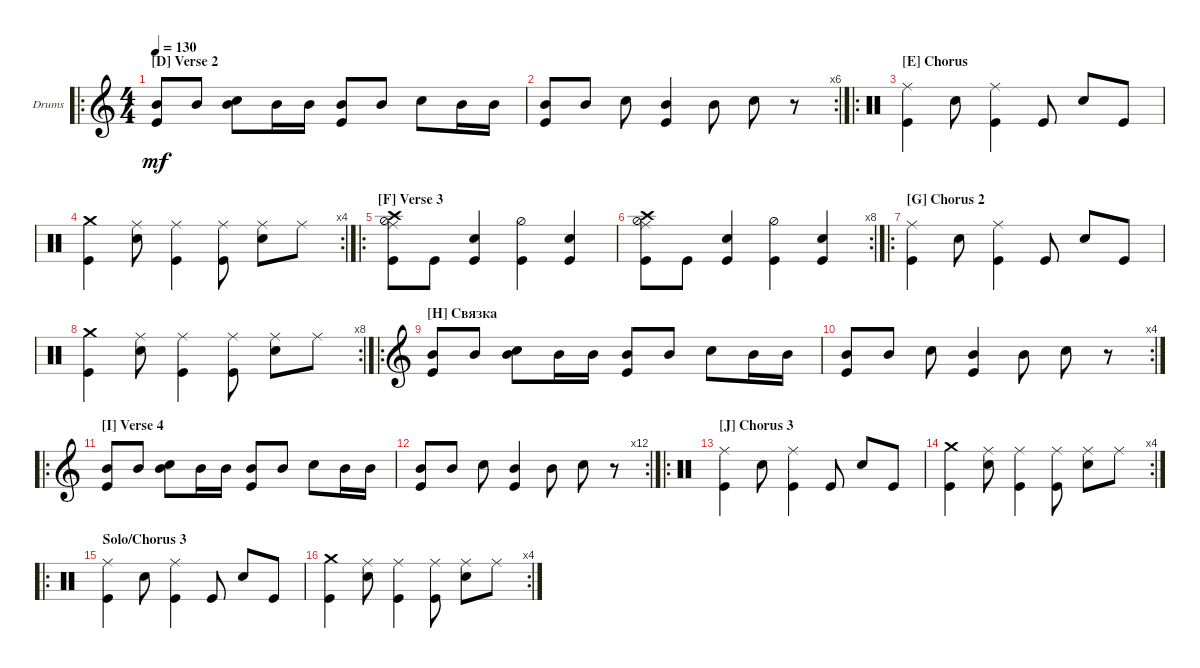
\defaultSystemsLayout 4
\bracketExtendMode groupsimilarinstruments
\firstSystemTrackNameOrientation horizontal
\otherSystemsTrackNameOrientation horizontal
\track ("Drumkit" "Drums") {instrument percussion}
\staff {score}
\articulation defaults
\ro
\ts (4 4)
\section ("D" "Verse 2")
\tempo 130
\clef g2
\ks c
("Mid Tom (hit)" "Kick (hit)").8{dy mf} "Mid Tom (hit)".8 ("Mid Tom (hit)" "Snare (hit) 2").8 "Mid Tom (hit)".16 "Mid Tom (hit)".16 ("Mid Tom (hit)" "Kick (hit)").8 "Mid Tom (hit)".8 "Snare (hit) 2".8 "Mid Tom (hit)".16 "Mid Tom (hit)".16 |
\rc 6
("Mid Tom (hit)" "Kick (hit)").8 "Mid Tom (hit)".8 "Snare (hit) 2".8 ("Mid Tom (hit)" "Kick (hit)").4 "Mid Tom (hit)".8 "Snare (hit) 2".8 r.8 |
\ro
\section ("E" "Chorus")
\clef neutral
("Ride (middle)" "Kick (hit)").4 "Snare (hit) 2".8 ("Ride (middle)" "Kick (hit)").4 "Kick (hit)".8 "Snare (hit) 2".8 "Kick (hit)".8 |
\rc 4
("Kick (hit)" "Crash medium (hit)").4 ("Snare (hit) 2" "Ride (middle)").8 ("Kick (hit)" "Ride (middle)").4 ("Kick (hit)" "Ride (middle)").8 ("Snare (hit) 2" "Ride (middle)").8 "Ride (middle)".8 |
\ro
\section ("F" "Verse 3")
("Crash high (hit)" "Ride (middle)" "Kick (hit)" "Hi-Hat (half)").8 "Kick (hit)".8 ("Snare (hit) 2" "Kick (hit)").4 ("Kick (hit)" "Hi-Hat (half)").4 ("Snare (hit) 2" "Kick (hit)").4 |
\rc 8
("Crash high (hit)" "Ride (middle)" "Kick (hit)" "Hi-Hat (half)").8 "Kick (hit)".8 ("Snare (hit) 2" "Kick (hit)").4 ("Kick (hit)" "Hi-Hat (half)").4 ("Snare (hit) 2" "Kick (hit)").4 |
\ro
\section ("G" "Chorus 2")
("Ride (middle)" "Kick (hit)").4 "Snare (hit) 2".8 ("Ride (middle)" "Kick (hit)").4 "Kick (hit)".8 "Snare (hit) 2".8 "Kick (hit)".8 |
\rc 8
("Kick (hit)" "Crash medium (hit)").4 ("Snare (hit) 2" "Ride (middle)").8 ("Kick (hit)" "Ride (middle)").4 ("Kick (hit)" "Ride (middle)").8 ("Snare (hit) 2" "Ride (middle)").8 "Ride (middle)".8 |
\ro
\section ("H" "Связка")
\clef g2
("Mid Tom (hit)" "Kick (hit)").8 "Mid Tom (hit)".8 ("Mid Tom (hit)" "Snare (hit) 2").8 "Mid Tom (hit)".16 "Mid Tom (hit)".16 ("Mid Tom (hit)" "Kick (hit)").8 "Mid Tom (hit)".8 "Snare (hit) 2".8 "Mid Tom (hit)".16 "Mid Tom (hit)".16 |
\rc 4
("Mid Tom (hit)" "Kick (hit)").8 "Mid Tom (hit)".8 "Snare (hit) 2".8 ("Mid Tom (hit)" "Kick (hit)").4 "Mid Tom (hit)".8 "Snare (hit) 2".8 r.8 |
\ro
\section ("I" "Verse 4")
("Mid Tom (hit)" "Kick (hit)").8 "Mid Tom (hit)".8 ("Mid Tom (hit)" "Snare (hit) 2").8 "Mid Tom (hit)".16 "Mid Tom (hit)".16 ("Mid Tom (hit)" "Kick (hit)").8 "Mid Tom (hit)".8 "Snare (hit) 2".8 "Mid Tom (hit)".16 "Mid Tom (hit)".16 |
\rc 12
("Mid Tom (hit)" "Kick (hit)").8 "Mid Tom (hit)".8 "Snare (hit) 2".8 ("Mid Tom (hit)" "Kick (hit)").4 "Mid Tom (hit)".8 "Snare (hit) 2".8 r.8 |
\ro
\section ("J" "Chorus 3")
\clef neutral
("Ride (middle)" "Kick (hit)").4 "Snare (hit) 2".8 ("Ride (middle)" "Kick (hit)").4 "Kick (hit)".8 "Snare (hit) 2".8 "Kick (hit)".8 |
\rc 4
("Kick (hit)" "Crash medium (hit)").4 ("Snare (hit) 2" "Ride (middle)").8 ("Kick (hit)" "Ride (middle)").4 ("Kick (hit)" "Ride (middle)").8 ("Snare (hit) 2" "Ride (middle)").8 "Ride (middle)".8 |
\ro
\section ("" "Solo/Chorus 3")
("Ride (middle)" "Kick (hit)").4 "Snare (hit) 2".8 ("Ride (middle)" "Kick (hit)").4 "Kick (hit)".8 "Snare (hit) 2".8 "Kick (hit)".8 |
\rc 4
("Kick (hit)" "Crash medium (hit)").4 ("Snare (hit) 2" "Ride (middle)").8 ("Kick (hit)" "Ride (middle)").4 ("Kick (hit)" "Ride (middle)").8 ("Snare (hit) 2" "Ride (middle)").8 "Ride (middle)".8
